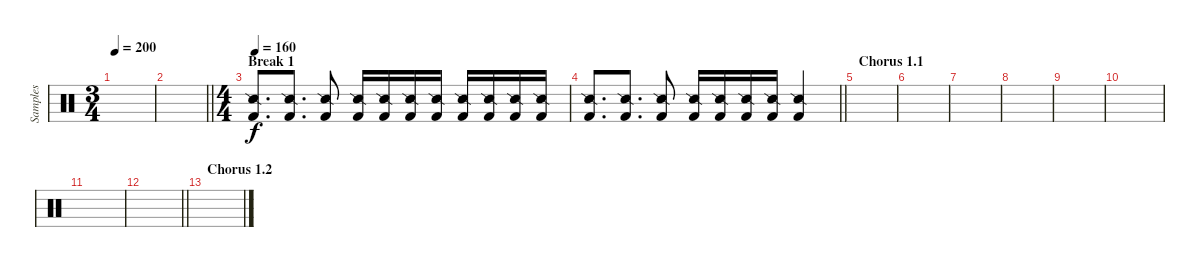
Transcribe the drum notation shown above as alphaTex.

\track ("Samples" "Samples") {instrument percussion}
\staff {score}
\articulation defaults
\ts (3 4)
\tempo 200
\clef neutral
\ks c
|
\barLineRight lightlight
|
\ts (4 4)
\section ("" "Break 1")
\tempo 160
("Snare (side stick) 2" "Kick (hit) 2").8{d} ("Snare (side stick) 2" "Kick (hit) 2").8{d} ("Snare (side stick) 2" "Kick (hit) 2").8 ("Snare (side stick) 2" "Kick (hit) 2").16 ("Snare (side stick) 2" "Kick (hit) 2").16 ("Snare (side stick) 2" "Kick (hit) 2").16 ("Snare (side stick) 2" "Kick (hit) 2").16 ("Snare (side stick) 2" "Kick (hit) 2").16 ("Snare (side stick) 2" "Kick (hit) 2").16 ("Snare (side stick) 2" "Kick (hit) 2").16 ("Snare (side stick) 2" "Kick (hit) 2").16 |
\barLineRight lightlight
("Snare (side stick) 2" "Kick (hit) 2").8{d} ("Snare (side stick) 2" "Kick (hit) 2").8{d} ("Snare (side stick) 2" "Kick (hit) 2").8 ("Snare (side stick) 2" "Kick (hit) 2").16 ("Snare (side stick) 2" "Kick (hit) 2").16 ("Snare (side stick) 2" "Kick (hit) 2").16 ("Snare (side stick) 2" "Kick (hit) 2").16 ("Snare (side stick) 2" "Kick (hit) 2").4 |
\section ("" "Chorus 1.1")
|
|
|
|
|
|
|
\barLineRight lightlight
|
\section ("" "Chorus 1.2")
